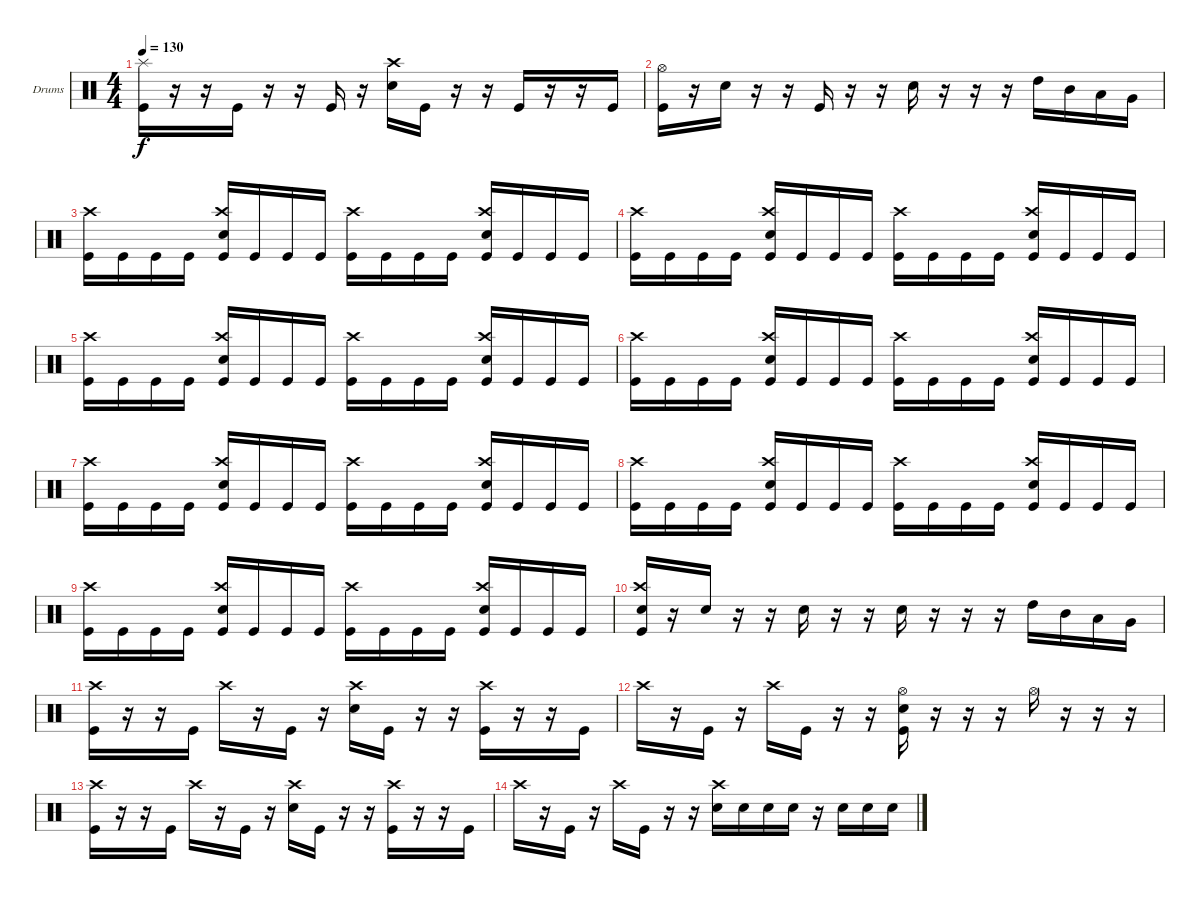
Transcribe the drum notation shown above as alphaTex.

\bracketExtendMode groupsimilarinstruments
\firstSystemTrackNameOrientation horizontal
\otherSystemsTrackNameOrientation horizontal
\track ("Drumkit" "Drums") {instrument percussion}
\staff {score}
\articulation defaults
\ts (4 4)
\tempo 130
\clef neutral
\ks c
("Splash (hit)" "Kick (hit)").16{dy f} r.16 r.16 "Kick (hit)".16 r.16 r.16 "Kick (hit)".16 r.16 ("Crash high (hit)" "Snare (hit) 2").16 "Kick (hit)".16 r.16 r.16 "Kick (hit)".16 r.16 r.16 "Kick (hit)".16 |
("Hi-Hat (open)" "Kick (hit)").16 r.16 "Snare (hit) 2".16 r.16 r.16 "Kick (hit)".16 r.16 r.16 "Snare (hit) 2".16 r.16 r.16 r.16 "High Tom (hit)".16 "Mid Tom (hit)".16 "Low Tom (hit)".16 "Very Low Tom (hit)".16 |
("Kick (hit)" "Crash high (hit)").16 "Kick (hit)".16 "Kick (hit)".16 "Kick (hit)".16 ("Kick (hit)" "Crash high (hit)" "Snare (hit) 2").16 "Kick (hit)".16 "Kick (hit)".16 "Kick (hit)".16 ("Kick (hit)" "Crash high (hit)").16 "Kick (hit)".16 "Kick (hit)".16 "Kick (hit)".16 ("Kick (hit)" "Crash high (hit)" "Snare (hit) 2").16 "Kick (hit)".16 "Kick (hit)".16 "Kick (hit)".16 |
("Kick (hit)" "Crash high (hit)").16 "Kick (hit)".16 "Kick (hit)".16 "Kick (hit)".16 ("Kick (hit)" "Crash high (hit)" "Snare (hit) 2").16 "Kick (hit)".16 "Kick (hit)".16 "Kick (hit)".16 ("Kick (hit)" "Crash high (hit)").16 "Kick (hit)".16 "Kick (hit)".16 "Kick (hit)".16 ("Kick (hit)" "Crash high (hit)" "Snare (hit) 2").16 "Kick (hit)".16 "Kick (hit)".16 "Kick (hit)".16 |
("Kick (hit)" "Crash high (hit)").16 "Kick (hit)".16 "Kick (hit)".16 "Kick (hit)".16 ("Kick (hit)" "Crash high (hit)" "Snare (hit) 2").16 "Kick (hit)".16 "Kick (hit)".16 "Kick (hit)".16 ("Kick (hit)" "Crash high (hit)").16 "Kick (hit)".16 "Kick (hit)".16 "Kick (hit)".16 ("Kick (hit)" "Crash high (hit)" "Snare (hit) 2").16 "Kick (hit)".16 "Kick (hit)".16 "Kick (hit)".16 |
("Kick (hit)" "Crash high (hit)").16 "Kick (hit)".16 "Kick (hit)".16 "Kick (hit)".16 ("Kick (hit)" "Crash high (hit)" "Snare (hit) 2").16 "Kick (hit)".16 "Kick (hit)".16 "Kick (hit)".16 ("Kick (hit)" "Crash high (hit)").16 "Kick (hit)".16 "Kick (hit)".16 "Kick (hit)".16 ("Kick (hit)" "Crash high (hit)" "Snare (hit) 2").16 "Kick (hit)".16 "Kick (hit)".16 "Kick (hit)".16 |
("Kick (hit)" "Crash high (hit)").16 "Kick (hit)".16 "Kick (hit)".16 "Kick (hit)".16 ("Kick (hit)" "Crash high (hit)" "Snare (hit) 2").16 "Kick (hit)".16 "Kick (hit)".16 "Kick (hit)".16 ("Kick (hit)" "Crash high (hit)").16 "Kick (hit)".16 "Kick (hit)".16 "Kick (hit)".16 ("Kick (hit)" "Crash high (hit)" "Snare (hit) 2").16 "Kick (hit)".16 "Kick (hit)".16 "Kick (hit)".16 |
("Kick (hit)" "Crash high (hit)").16 "Kick (hit)".16 "Kick (hit)".16 "Kick (hit)".16 ("Kick (hit)" "Crash high (hit)" "Snare (hit) 2").16 "Kick (hit)".16 "Kick (hit)".16 "Kick (hit)".16 ("Kick (hit)" "Crash high (hit)").16 "Kick (hit)".16 "Kick (hit)".16 "Kick (hit)".16 ("Kick (hit)" "Crash high (hit)" "Snare (hit) 2").16 "Kick (hit)".16 "Kick (hit)".16 "Kick (hit)".16 |
("Kick (hit)" "Crash high (hit)").16 "Kick (hit)".16 "Kick (hit)".16 "Kick (hit)".16 ("Kick (hit)" "Crash high (hit)" "Snare (hit) 2").16 "Kick (hit)".16 "Kick (hit)".16 "Kick (hit)".16 ("Kick (hit)" "Crash high (hit)").16 "Kick (hit)".16 "Kick (hit)".16 "Kick (hit)".16 ("Kick (hit)" "Crash high (hit)" "Snare (hit) 2").16 "Kick (hit)".16 "Kick (hit)".16 "Kick (hit)".16 |
("Kick (hit)" "Crash high (hit)" "Snare (hit) 2").16 r.16 "Snare (hit) 2".16 r.16 r.16 "Snare (hit) 2".16 r.16 r.16 "Snare (hit) 2".16 r.16 r.16 r.16 "High Tom (hit)".16 "Mid Tom (hit)".16 "Low Tom (hit)".16 "Very Low Tom (hit)".16 |
("Kick (hit)" "Crash high (hit)").16 r.16 r.16 "Kick (hit)".16 "Crash high (hit)".16 r.16 "Kick (hit)".16 r.16 ("Crash high (hit)" "Snare (hit) 2").16 "Kick (hit)".16 r.16 r.16 ("Kick (hit)" "Crash high (hit)").16 r.16 r.16 "Kick (hit)".16 |
"Crash high (hit)".16 r.16 "Kick (hit)".16 r.16 "Crash high (hit)".16 "Kick (hit)".16 r.16 r.16 ("Kick (hit)" "Snare (hit) 2" "Hi-Hat (open)").16 r.16 r.16 r.16 "Hi-Hat (open)".16 r.16 r.16 r.16 |
("Kick (hit)" "Crash high (hit)").16 r.16 r.16 "Kick (hit)".16 "Crash high (hit)".16 r.16 "Kick (hit)".16 r.16 ("Crash high (hit)" "Snare (hit) 2").16 "Kick (hit)".16 r.16 r.16 ("Kick (hit)" "Crash high (hit)").16 r.16 r.16 "Kick (hit)".16 |
"Crash high (hit)".16 r.16 "Kick (hit)".16 r.16 "Crash high (hit)".16 "Kick (hit)".16 r.16 r.16 ("Crash high (hit)" "Snare (hit) 2").16 "Snare (hit) 2".16 "Snare (hit) 2".16 "Snare (hit) 2".16 r.16 "Snare (hit) 2".16 "Snare (hit) 2".16 "Snare (hit) 2".16
